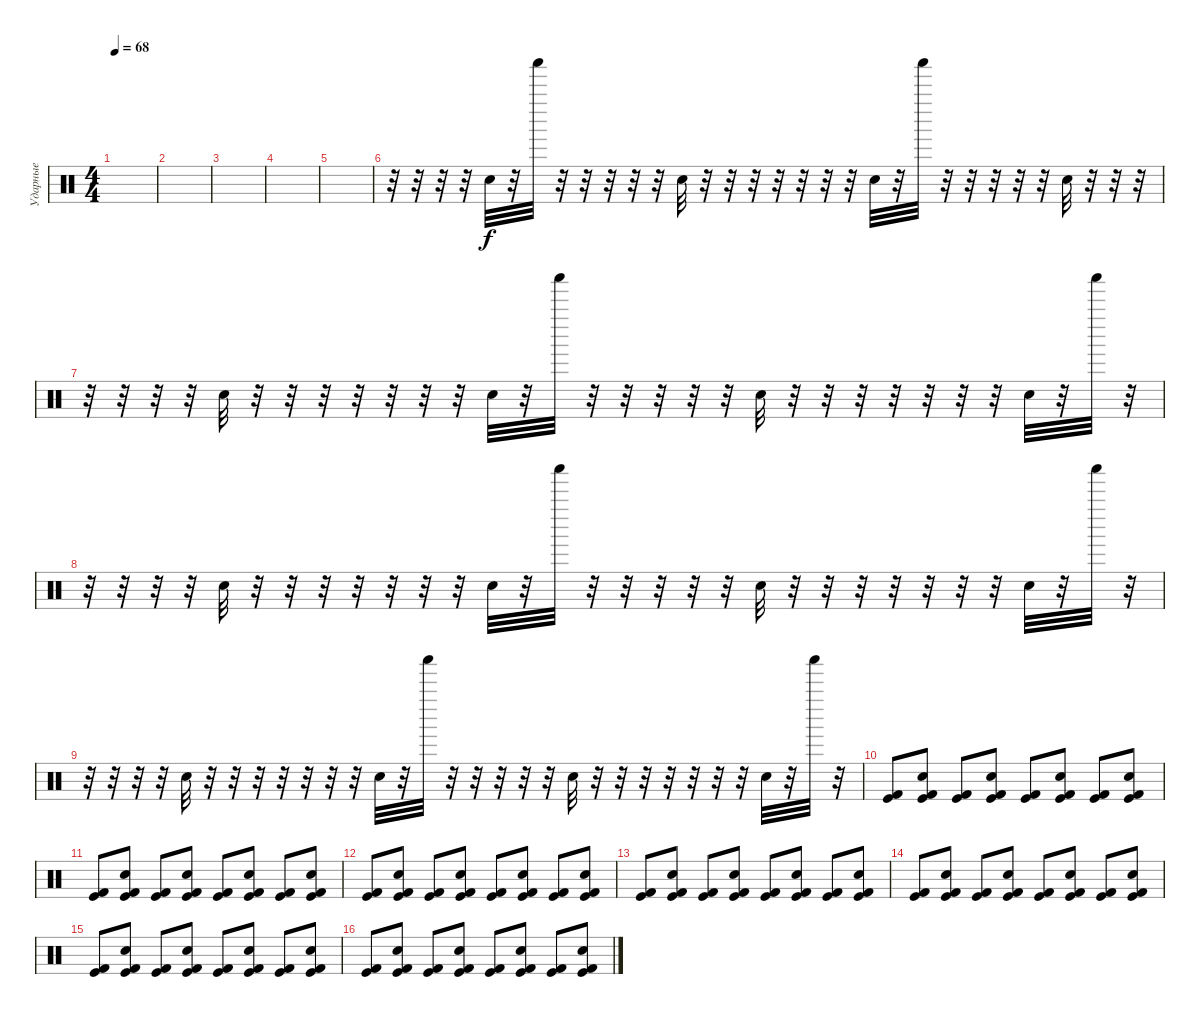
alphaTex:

\track ("Ударные" "Ударные") {instrument percussion}
\staff {score}
\articulation defaults
\ts (4 4)
\tempo 68
\clef neutral
\ks c
|
|
|
|
|
r.32 r.32 r.32 r.32 "Hand Clap (hit)".32 r.32 "Shaker (hit)".32 r.32 r.32 r.32 r.32 r.32 "Hand Clap (hit)".32 r.32 r.32 r.32 r.32 r.32 r.32 r.32 "Hand Clap (hit)".32 r.32 "Shaker (hit)".32 r.32 r.32 r.32 r.32 r.32 "Hand Clap (hit)".32 r.32 r.32 r.32 |
r.32 r.32 r.32 r.32 "Hand Clap (hit)".32 r.32 r.32 r.32 r.32 r.32 r.32 r.32 "Hand Clap (hit)".32 r.32 "Shaker (hit)".32 r.32 r.32 r.32 r.32 r.32 "Hand Clap (hit)".32 r.32 r.32 r.32 r.32 r.32 r.32 r.32 "Hand Clap (hit)".32 r.32 "Shaker (hit)".32 r.32 |
r.32 r.32 r.32 r.32 "Hand Clap (hit)".32 r.32 r.32 r.32 r.32 r.32 r.32 r.32 "Hand Clap (hit)".32 r.32 "Shaker (hit)".32 r.32 r.32 r.32 r.32 r.32 "Hand Clap (hit)".32 r.32 r.32 r.32 r.32 r.32 r.32 r.32 "Hand Clap (hit)".32 r.32 "Shaker (hit)".32 r.32 |
r.32 r.32 r.32 r.32 "Hand Clap (hit)".32 r.32 r.32 r.32 r.32 r.32 r.32 r.32 "Hand Clap (hit)".32 r.32 "Shaker (hit)".32 r.32 r.32 r.32 r.32 r.32 "Hand Clap (hit)".32 r.32 r.32 r.32 r.32 r.32 r.32 r.32 "Hand Clap (hit)".32 r.32 "Shaker (hit)".32 r.32 |
("Kick (hit)" "Kick (hit) 2").8 ("Kick (hit)" "Kick (hit) 2" "Hand Clap (hit)").8 ("Kick (hit)" "Kick (hit) 2").8 ("Kick (hit)" "Kick (hit) 2" "Hand Clap (hit)").8 ("Kick (hit)" "Kick (hit) 2").8 ("Kick (hit)" "Kick (hit) 2" "Hand Clap (hit)").8 ("Kick (hit)" "Kick (hit) 2").8 ("Kick (hit)" "Kick (hit) 2" "Hand Clap (hit)").8 |
("Kick (hit)" "Kick (hit) 2").8 ("Kick (hit)" "Kick (hit) 2" "Hand Clap (hit)").8 ("Kick (hit)" "Kick (hit) 2").8 ("Kick (hit)" "Kick (hit) 2" "Hand Clap (hit)").8 ("Kick (hit)" "Kick (hit) 2").8 ("Kick (hit)" "Kick (hit) 2" "Hand Clap (hit)").8 ("Kick (hit)" "Kick (hit) 2").8 ("Kick (hit)" "Kick (hit) 2" "Hand Clap (hit)").8 |
("Kick (hit)" "Kick (hit) 2").8 ("Kick (hit)" "Kick (hit) 2" "Hand Clap (hit)").8 ("Kick (hit)" "Kick (hit) 2").8 ("Kick (hit)" "Kick (hit) 2" "Hand Clap (hit)").8 ("Kick (hit)" "Kick (hit) 2").8 ("Kick (hit)" "Kick (hit) 2" "Hand Clap (hit)").8 ("Kick (hit)" "Kick (hit) 2").8 ("Kick (hit)" "Kick (hit) 2" "Hand Clap (hit)").8 |
("Kick (hit)" "Kick (hit) 2").8 ("Kick (hit)" "Kick (hit) 2" "Hand Clap (hit)").8 ("Kick (hit)" "Kick (hit) 2").8 ("Kick (hit)" "Kick (hit) 2" "Hand Clap (hit)").8 ("Kick (hit)" "Kick (hit) 2").8 ("Kick (hit)" "Kick (hit) 2" "Hand Clap (hit)").8 ("Kick (hit)" "Kick (hit) 2").8 ("Kick (hit)" "Kick (hit) 2" "Hand Clap (hit)").8 |
("Kick (hit)" "Kick (hit) 2").8 ("Kick (hit)" "Kick (hit) 2" "Hand Clap (hit)").8 ("Kick (hit)" "Kick (hit) 2").8 ("Kick (hit)" "Kick (hit) 2" "Hand Clap (hit)").8 ("Kick (hit)" "Kick (hit) 2").8 ("Kick (hit)" "Kick (hit) 2" "Hand Clap (hit)").8 ("Kick (hit)" "Kick (hit) 2").8 ("Kick (hit)" "Kick (hit) 2" "Hand Clap (hit)").8 |
("Kick (hit)" "Kick (hit) 2").8 ("Kick (hit)" "Kick (hit) 2" "Hand Clap (hit)").8 ("Kick (hit)" "Kick (hit) 2").8 ("Kick (hit)" "Kick (hit) 2" "Hand Clap (hit)").8 ("Kick (hit)" "Kick (hit) 2").8 ("Kick (hit)" "Kick (hit) 2" "Hand Clap (hit)").8 ("Kick (hit)" "Kick (hit) 2").8 ("Kick (hit)" "Kick (hit) 2" "Hand Clap (hit)").8 |
("Kick (hit)" "Kick (hit) 2").8 ("Kick (hit)" "Kick (hit) 2" "Hand Clap (hit)").8 ("Kick (hit)" "Kick (hit) 2").8 ("Kick (hit)" "Kick (hit) 2" "Hand Clap (hit)").8 ("Kick (hit)" "Kick (hit) 2").8 ("Kick (hit)" "Kick (hit) 2" "Hand Clap (hit)").8 ("Kick (hit)" "Kick (hit) 2").8 ("Kick (hit)" "Kick (hit) 2" "Hand Clap (hit)").8
